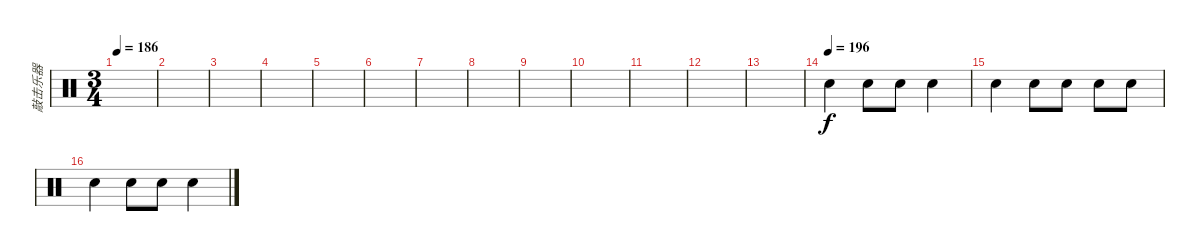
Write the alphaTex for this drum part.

\track ("敲击乐器" "敲击乐器") {instrument percussion}
\staff {score}
\articulation defaults
\ts (3 4)
\tempo 186
\clef neutral
\ks c
|
|
|
|
|
|
|
|
|
|
|
|
|
\tempo (196)
"Snare (hit) 2".4 "Snare (hit) 2".8 "Snare (hit) 2".8 "Snare (hit) 2".4 |
"Snare (hit) 2".4 "Snare (hit) 2".8 "Snare (hit) 2".8 "Snare (hit) 2".8 "Snare (hit) 2".8 |
"Snare (hit) 2".4 "Snare (hit) 2".8 "Snare (hit) 2".8 "Snare (hit) 2".4
